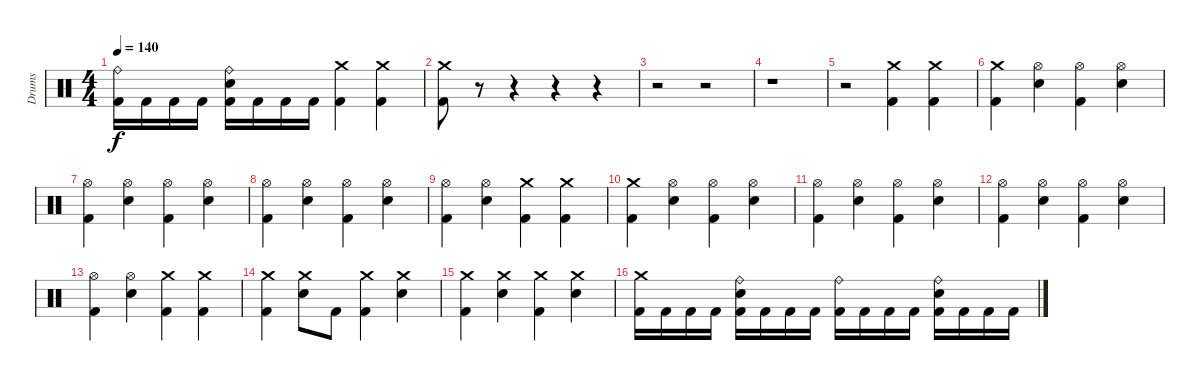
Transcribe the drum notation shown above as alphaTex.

\track ("Drums" "Drums") {instrument percussion}
\staff
\articulation defaults
\ts (4 4)
\tempo 140
\clef neutral
\ks c
("Ride (bell)" "Kick (hit) 2").16{dy f} "Kick (hit) 2".16 "Kick (hit) 2".16 "Kick (hit) 2".16 ("Ride (bell)" "Electric Snare (hit)" "Kick (hit) 2").16 "Kick (hit) 2".16 "Kick (hit) 2".16 "Kick (hit) 2".16 ("Crash medium (hit)" "Kick (hit) 2").4 ("Crash medium (hit)" "Kick (hit) 2").4 |
("Crash medium (hit)" "Kick (hit) 2").8 r.8 r.4 r.4 r.4 |
r.2 r.2 |
r.1 |
r.2 ("Crash medium (hit)" "Kick (hit) 2").4 ("Crash medium (hit)" "Kick (hit) 2").4 |
("Crash medium (hit)" "Kick (hit) 2").4 ("Hi-Hat (open)" "Electric Snare (hit)").4 ("Hi-Hat (open)" "Kick (hit) 2").4 ("Hi-Hat (open)" "Electric Snare (hit)").4 |
("Hi-Hat (open)" "Kick (hit) 2").4 ("Hi-Hat (open)" "Electric Snare (hit)").4 ("Hi-Hat (open)" "Kick (hit) 2").4 ("Hi-Hat (open)" "Electric Snare (hit)").4 |
("Hi-Hat (open)" "Kick (hit) 2").4 ("Hi-Hat (open)" "Electric Snare (hit)").4 ("Hi-Hat (open)" "Kick (hit) 2").4 ("Hi-Hat (open)" "Electric Snare (hit)").4 |
("Hi-Hat (open)" "Kick (hit) 2").4 ("Hi-Hat (open)" "Electric Snare (hit)").4 ("Crash medium (hit)" "Kick (hit) 2").4 ("Crash medium (hit)" "Kick (hit) 2").4 |
("Crash medium (hit)" "Kick (hit) 2").4 ("Hi-Hat (open)" "Electric Snare (hit)").4 ("Hi-Hat (open)" "Kick (hit) 2").4 ("Hi-Hat (open)" "Electric Snare (hit)").4 |
("Hi-Hat (open)" "Kick (hit) 2").4 ("Hi-Hat (open)" "Electric Snare (hit)").4 ("Hi-Hat (open)" "Kick (hit) 2").4 ("Hi-Hat (open)" "Electric Snare (hit)").4 |
("Hi-Hat (open)" "Kick (hit) 2").4 ("Hi-Hat (open)" "Electric Snare (hit)").4 ("Hi-Hat (open)" "Kick (hit) 2").4 ("Hi-Hat (open)" "Electric Snare (hit)").4 |
("Hi-Hat (open)" "Kick (hit) 2").4 ("Hi-Hat (open)" "Electric Snare (hit)").4 ("Crash medium (hit)" "Kick (hit) 2").4 ("Crash medium (hit)" "Kick (hit) 2").4 |
("Crash medium (hit)" "Kick (hit) 2").4 ("Crash medium (hit)" "Electric Snare (hit)").8 "Kick (hit) 2".8 ("Crash medium (hit)" "Kick (hit) 2").4 ("Crash medium (hit)" "Electric Snare (hit)").4 |
("Crash medium (hit)" "Kick (hit) 2").4 ("Crash medium (hit)" "Electric Snare (hit)").4 ("Crash medium (hit)" "Kick (hit) 2").4 ("Crash medium (hit)" "Electric Snare (hit)").4 |
("Crash medium (hit)" "Kick (hit) 2").16 "Kick (hit) 2".16 "Kick (hit) 2".16 "Kick (hit) 2".16 ("Ride (bell)" "Electric Snare (hit)" "Kick (hit) 2").16 "Kick (hit) 2".16 "Kick (hit) 2".16 "Kick (hit) 2".16 ("Ride (bell)" "Kick (hit) 2").16 "Kick (hit) 2".16 "Kick (hit) 2".16 "Kick (hit) 2".16 ("Ride (bell)" "Electric Snare (hit)" "Kick (hit) 2").16 "Kick (hit) 2".16 "Kick (hit) 2".16 "Kick (hit) 2".16
